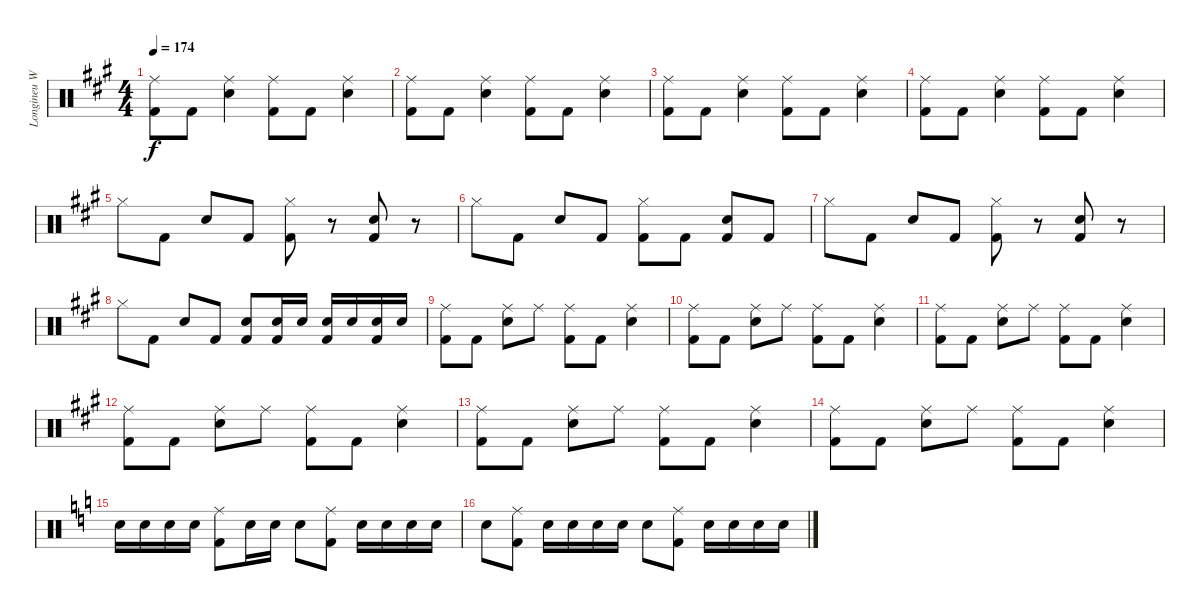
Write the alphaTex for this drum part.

\track ("Longineu W. Parsons III" "Longineu W") {instrument percussion}
\staff {score}
\articulation defaults
\ts (4 4)
\tempo 174
\clef neutral
\ks a
("Ride (middle)" "Kick (hit) 2").8{dy f} "Kick (hit) 2".8 ("Electric Snare (hit)" "Ride (middle)").4 ("Ride (middle)" "Kick (hit) 2").8 "Kick (hit) 2".8 ("Electric Snare (hit)" "Ride (middle)").4 |
("Ride (middle)" "Kick (hit) 2").8 "Kick (hit) 2".8 ("Electric Snare (hit)" "Ride (middle)").4 ("Ride (middle)" "Kick (hit) 2").8 "Kick (hit) 2".8 ("Electric Snare (hit)" "Ride (middle)").4 |
("Ride (middle)" "Kick (hit) 2").8 "Kick (hit) 2".8 ("Electric Snare (hit)" "Ride (middle)").4 ("Ride (middle)" "Kick (hit) 2").8 "Kick (hit) 2".8 ("Electric Snare (hit)" "Ride (middle)").4 |
("Ride (middle)" "Kick (hit) 2").8 "Kick (hit) 2".8 ("Electric Snare (hit)" "Ride (middle)").4 ("Ride (middle)" "Kick (hit) 2").8 "Kick (hit) 2".8 ("Electric Snare (hit)" "Ride (middle)").4 |
"Hi-Hat (closed)".8 "Kick (hit) 2".8 "Electric Snare (hit)".8 "Kick (hit) 2".8 ("Hi-Hat (closed)" "Kick (hit) 2").8 r.8 ("Electric Snare (hit)" "Kick (hit) 2").8 r.8 |
"Hi-Hat (closed)".8 "Kick (hit) 2".8 "Electric Snare (hit)".8 "Kick (hit) 2".8 ("Hi-Hat (closed)" "Kick (hit) 2").8 "Kick (hit) 2".8 ("Electric Snare (hit)" "Kick (hit) 2").8 "Kick (hit) 2".8 |
"Hi-Hat (closed)".8 "Kick (hit) 2".8 "Electric Snare (hit)".8 "Kick (hit) 2".8 ("Hi-Hat (closed)" "Kick (hit) 2").8 r.8 ("Electric Snare (hit)" "Kick (hit) 2").8 r.8 |
"Hi-Hat (closed)".8 "Kick (hit) 2".8 "Electric Snare (hit)".8 "Kick (hit) 2".8 ("Electric Snare (hit)" "Kick (hit) 2").8 ("Electric Snare (hit)" "Kick (hit) 2").16 "Electric Snare (hit)".16 ("Electric Snare (hit)" "Kick (hit) 2").16 "Electric Snare (hit)".16 ("Electric Snare (hit)" "Kick (hit) 2").16 "Electric Snare (hit)".16 |
("Ride (middle)" "Kick (hit) 2").8 "Kick (hit) 2".8 ("Electric Snare (hit)" "Ride (middle)").8 "Ride (middle)".8 ("Ride (middle)" "Kick (hit) 2").8 "Kick (hit) 2".8 ("Electric Snare (hit)" "Ride (middle)").4 |
("Ride (middle)" "Kick (hit) 2").8 "Kick (hit) 2".8 ("Electric Snare (hit)" "Ride (middle)").8 "Ride (middle)".8 ("Ride (middle)" "Kick (hit) 2").8 "Kick (hit) 2".8 ("Electric Snare (hit)" "Ride (middle)").4 |
("Ride (middle)" "Kick (hit) 2").8 "Kick (hit) 2".8 ("Electric Snare (hit)" "Ride (middle)").8 "Ride (middle)".8 ("Ride (middle)" "Kick (hit) 2").8 "Kick (hit) 2".8 ("Electric Snare (hit)" "Ride (middle)").4 |
("Ride (middle)" "Kick (hit) 2").8 "Kick (hit) 2".8 ("Electric Snare (hit)" "Ride (middle)").8 "Ride (middle)".8 ("Ride (middle)" "Kick (hit) 2").8 "Kick (hit) 2".8 ("Electric Snare (hit)" "Ride (middle)").4 |
("Ride (middle)" "Kick (hit) 2").8 "Kick (hit) 2".8 ("Electric Snare (hit)" "Ride (middle)").8 "Ride (middle)".8 ("Ride (middle)" "Kick (hit) 2").8 "Kick (hit) 2".8 ("Electric Snare (hit)" "Ride (middle)").4 |
("Ride (middle)" "Kick (hit) 2").8 "Kick (hit) 2".8 ("Electric Snare (hit)" "Ride (middle)").8 "Ride (middle)".8 ("Ride (middle)" "Kick (hit) 2").8 "Kick (hit) 2".8 ("Electric Snare (hit)" "Ride (middle)").4 |
\ks c "Electric Snare (hit)".16 "Electric Snare (hit)".16 "Electric Snare (hit)".16 "Electric Snare (hit)".16
("Ride (middle)" "Kick (hit) 2").8 "Electric Snare (hit)".16 "Electric Snare (hit)".16 "Electric Snare (hit)".8 ("Ride (middle)" "Kick (hit) 2").8 "Electric Snare (hit)".16 "Electric Snare (hit)".16 "Electric Snare (hit)".16 "Electric Snare (hit)".16 |
"Electric Snare (hit)".8 ("Ride (middle)" "Kick (hit) 2").8 "Electric Snare (hit)".16 "Electric Snare (hit)".16 "Electric Snare (hit)".16 "Electric Snare (hit)".16 "Electric Snare (hit)".8 ("Ride (middle)" "Kick (hit) 2").8 "Electric Snare (hit)".16 "Electric Snare (hit)".16 "Electric Snare (hit)".16 "Electric Snare (hit)".16
